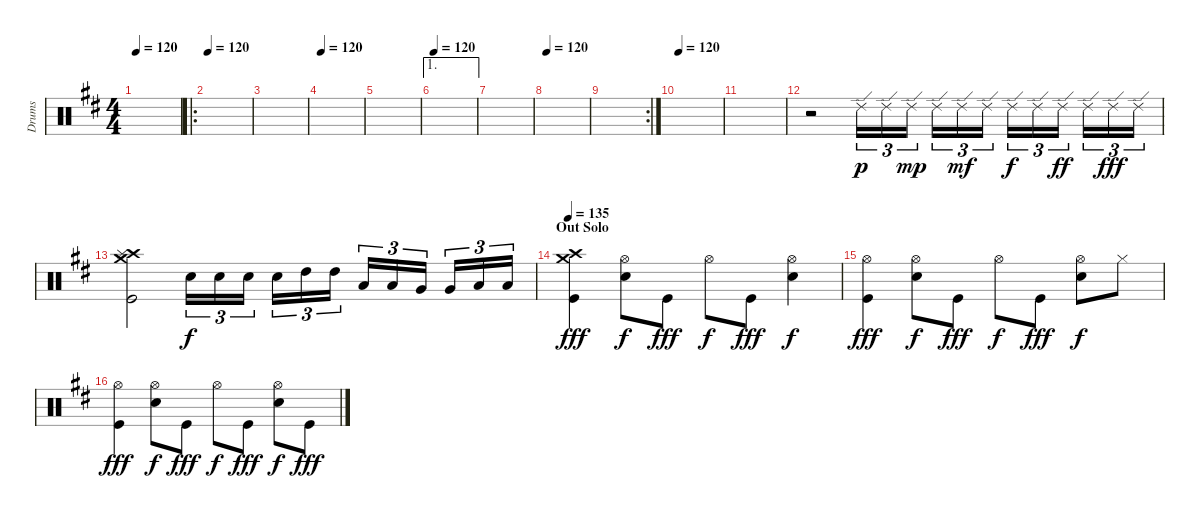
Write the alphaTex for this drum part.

\track ("Drums" "Drums") {instrument percussion}
\staff {score}
\articulation defaults
\ts (4 4)
\tempo 120
\clef neutral
\ks d
|
\ro
\tempo 120
|
|
\tempo 120
|
|
\ae 1
\tempo 120
|
|
\tempo 120
|
\rc 2
|
\tempo 120
|
|
r.2 "Ride (edge) 2".16{tu (3 2) dy p} "Ride (edge) 2".16{tu (3 2)} "Ride (edge) 2".16{tu (3 2) dy mp} "Ride (edge) 2".16{tu (3 2)} "Ride (edge) 2".16{tu (3 2) dy mf} "Ride (edge) 2".16{tu (3 2)} "Ride (edge) 2".16{tu (3 2) dy f} "Ride (edge) 2".16{tu (3 2)} "Ride (edge) 2".16{tu (3 2) dy ff} "Ride (edge) 2".16{tu (3 2)} "Ride (edge) 2".16{tu (3 2) dy fff} "Ride (edge) 2".16{tu (3 2)} |
("Crash high (hit)" "Crash medium (hit)" "Splash (hit)" "Kick (hit)").2 "Electric Snare (hit)".16{tu (3 2) dy f} "Electric Snare (hit)".16{tu (3 2)} "Electric Snare (hit)".16{tu (3 2)} "Electric Snare (hit)".16{tu (3 2)} "High Tom (hit)".16{tu (3 2)} "High Tom (hit)".16{tu (3 2)} "Low Tom (hit)".16{tu (3 2)} "Low Tom (hit)".16{tu (3 2)} "Very Low Tom (hit)".16{tu (3 2)} "Very Low Tom (hit)".16{tu (3 2)} "Low Floor Tom (hit)".16{tu (3 2)} "Low Floor Tom (hit)".16{tu (3 2)} |
\section ("" "Out Solo")
\tempo 135
("Crash high (hit)" "Crash medium (hit)" "Kick (hit)").4{dy fff} ("Hi-Hat (open)" "Snare (hit) 2").8{dy f} "Kick (hit)".8{dy fff} "Hi-Hat (open)".8{dy f} "Kick (hit)".8{dy fff} ("Hi-Hat (open)" "Snare (hit) 2").4{dy f} |
("Hi-Hat (open)" "Kick (hit)").4{dy fff} ("Hi-Hat (open)" "Snare (hit) 2").8{dy f} "Kick (hit)".8{dy fff} "Hi-Hat (open)".8{dy f} "Kick (hit)".8{dy fff} ("Hi-Hat (open)" "Snare (hit) 2").8{dy f} "Hi-Hat (closed)".8 |
("Hi-Hat (open)" "Kick (hit)").4{dy fff} ("Hi-Hat (open)" "Snare (hit) 2").8{dy f} "Kick (hit)".8{dy fff} "Hi-Hat (open)".8{dy f} "Kick (hit)".8{dy fff} ("Hi-Hat (open)" "Snare (hit) 2").8{dy f} "Kick (hit)".8{dy fff}
